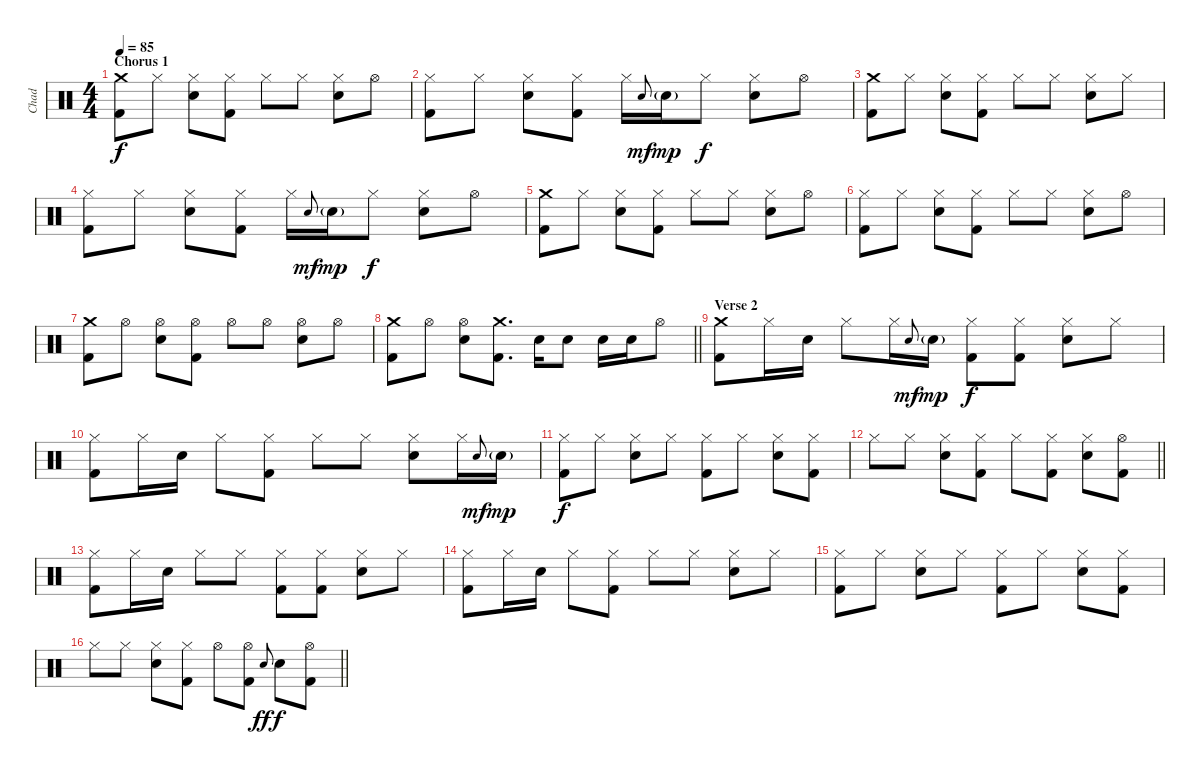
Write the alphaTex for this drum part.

\track ("Chad" "Chad") {instrument percussion}
\staff {score}
\articulation defaults
\ts (4 4)
\section ("" "Chorus 1")
\tempo 85
\clef neutral
\ks c
("Crash medium (hit)" "Kick (hit) 2").8{dy f} "Hi-Hat (closed)".8 ("Electric Snare (hit)" "Hi-Hat (closed)").8 ("Hi-Hat (closed)" "Kick (hit) 2").8 "Hi-Hat (closed)".8 "Hi-Hat (closed)".8 ("Electric Snare (hit)" "Hi-Hat (closed)").8 "Hi-Hat (open)".8 |
("Hi-Hat (closed)" "Kick (hit) 2").8 "Hi-Hat (closed)".8 ("Electric Snare (hit)" "Hi-Hat (closed)").8 ("Hi-Hat (closed)" "Kick (hit) 2").8 "Hi-Hat (closed)".16 "Electric Snare (hit)".8{gr onbeat dy mf} "Electric Snare (hit)"{g}.16{dy mp} "Hi-Hat (closed)".8{dy f} ("Electric Snare (hit)" "Hi-Hat (closed)").8 "Hi-Hat (open)".8 |
("Crash medium (hit)" "Kick (hit) 2").8 "Hi-Hat (closed)".8 ("Electric Snare (hit)" "Hi-Hat (closed)").8 ("Hi-Hat (closed)" "Kick (hit) 2").8 "Hi-Hat (closed)".8 "Hi-Hat (closed)".8 ("Electric Snare (hit)" "Hi-Hat (closed)").8 "Hi-Hat (closed)".8 |
("Hi-Hat (closed)" "Kick (hit) 2").8 "Hi-Hat (closed)".8 ("Electric Snare (hit)" "Hi-Hat (closed)").8 ("Hi-Hat (closed)" "Kick (hit) 2").8 "Hi-Hat (closed)".16 "Electric Snare (hit)".8{gr onbeat dy mf} "Electric Snare (hit)"{g}.16{dy mp} "Hi-Hat (closed)".8{dy f} ("Electric Snare (hit)" "Hi-Hat (closed)").8 "Hi-Hat (open)".8 |
("Crash medium (hit)" "Kick (hit) 2").8 "Hi-Hat (closed)".8 ("Electric Snare (hit)" "Hi-Hat (closed)").8 ("Hi-Hat (closed)" "Kick (hit) 2").8 "Hi-Hat (closed)".8 "Hi-Hat (closed)".8 ("Electric Snare (hit)" "Hi-Hat (closed)").8 "Hi-Hat (open)".8 |
("Hi-Hat (closed)" "Kick (hit) 2").8 "Hi-Hat (closed)".8 ("Electric Snare (hit)" "Hi-Hat (closed)").8 ("Hi-Hat (closed)" "Kick (hit) 2").8 "Hi-Hat (closed)".8 "Hi-Hat (closed)".8 ("Electric Snare (hit)" "Hi-Hat (closed)").8 "Hi-Hat (open)".8 |
("Crash medium (hit)" "Kick (hit) 2").8 "Hi-Hat (open)".8 ("Electric Snare (hit)" "Hi-Hat (open)").8 ("Hi-Hat (open)" "Kick (hit) 2").8 "Hi-Hat (open)".8 "Hi-Hat (open)".8 ("Electric Snare (hit)" "Hi-Hat (open)").8 "Hi-Hat (open)".8 |
\barLineRight lightlight
("Crash medium (hit)" "Kick (hit) 2").8 "Hi-Hat (open)".8 ("Electric Snare (hit)" "Hi-Hat (open)").8 ("Crash medium (hit)" "Kick (hit) 2").8{d} "Electric Snare (hit)".16 "Electric Snare (hit)".8 "Electric Snare (hit)".16 "Electric Snare (hit)".16 "Hi-Hat (open)".8 |
\section ("" "Verse 2")
("Crash medium (hit)" "Kick (hit) 2").8 "Hi-Hat (closed)".16 "Electric Snare (hit)".16 "Hi-Hat (closed)".8 "Hi-Hat (closed)".16 "Electric Snare (hit)".8{gr onbeat dy mf} "Electric Snare (hit)"{g}.16{dy mp} ("Hi-Hat (closed)" "Kick (hit) 2").8{dy f} ("Hi-Hat (closed)" "Kick (hit) 2").8 ("Electric Snare (hit)" "Hi-Hat (closed)").8 "Hi-Hat (closed)".8 |
("Hi-Hat (closed)" "Kick (hit) 2").8 "Hi-Hat (closed)".16 "Electric Snare (hit)".16 "Hi-Hat (closed)".8 ("Hi-Hat (closed)" "Kick (hit) 2").8 "Hi-Hat (closed)".8 "Hi-Hat (closed)".8 ("Electric Snare (hit)" "Hi-Hat (closed)").8 "Hi-Hat (closed)".16 "Electric Snare (hit)".8{gr onbeat dy mf} "Electric Snare (hit)"{g}.16{dy mp} |
("Hi-Hat (closed)" "Kick (hit) 2").8{dy f} "Hi-Hat (closed)".8 ("Electric Snare (hit)" "Hi-Hat (closed)").8 "Hi-Hat (closed)".8 ("Hi-Hat (closed)" "Kick (hit) 2").8 "Hi-Hat (closed)".8 ("Electric Snare (hit)" "Hi-Hat (closed)").8 ("Hi-Hat (closed)" "Kick (hit) 2").8 |
\barLineRight lightlight "Hi-Hat (closed)".8 "Hi-Hat (closed)".8
("Electric Snare (hit)" "Hi-Hat (closed)").8 ("Hi-Hat (closed)" "Kick (hit) 2").8 "Hi-Hat (closed)".8 ("Hi-Hat (closed)" "Kick (hit) 2").8 ("Electric Snare (hit)" "Hi-Hat (closed)").8 ("Hi-Hat (open)" "Kick (hit) 2").8 |
("Hi-Hat (closed)" "Kick (hit) 2").8 "Hi-Hat (closed)".16 "Electric Snare (hit)".16 "Hi-Hat (closed)".8 "Hi-Hat (closed)".8 ("Hi-Hat (closed)" "Kick (hit) 2").8 ("Hi-Hat (closed)" "Kick (hit) 2").8 ("Electric Snare (hit)" "Hi-Hat (closed)").8 "Hi-Hat (closed)".8 |
("Hi-Hat (closed)" "Kick (hit) 2").8 "Hi-Hat (closed)".16 "Electric Snare (hit)".16 "Hi-Hat (closed)".8 ("Hi-Hat (closed)" "Kick (hit) 2").8 "Hi-Hat (closed)".8 "Hi-Hat (closed)".8 ("Electric Snare (hit)" "Hi-Hat (closed)").8 "Hi-Hat (closed)".8 |
("Hi-Hat (closed)" "Kick (hit) 2").8 "Hi-Hat (closed)".8 ("Electric Snare (hit)" "Hi-Hat (closed)").8 "Hi-Hat (closed)".8 ("Hi-Hat (closed)" "Kick (hit) 2").8 "Hi-Hat (closed)".8 ("Electric Snare (hit)" "Hi-Hat (closed)").8 ("Hi-Hat (closed)" "Kick (hit) 2").8 |
\barLineRight lightlight "Hi-Hat (closed)".8 "Hi-Hat (closed)".8
("Electric Snare (hit)" "Hi-Hat (closed)").8 ("Hi-Hat (closed)" "Kick (hit) 2").8 "Hi-Hat (open)".8 ("Hi-Hat (open)" "Kick (hit) 2").8 "Electric Snare (hit)".8{gr onbeat dy ff} "Electric Snare (hit)".8{dy f} ("Hi-Hat (open)" "Kick (hit) 2").8
